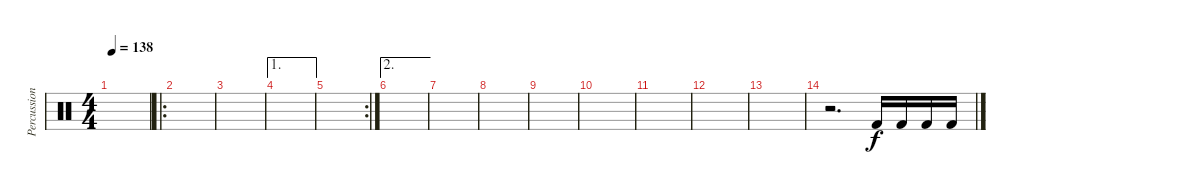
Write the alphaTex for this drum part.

\track ("Percussion" "Percussion") {instrument percussion}
\staff {score}
\articulation defaults
\ts (4 4)
\tempo 138
\clef neutral
\ks c
|
\ro
|
|
\ae 1
|
\rc 2
|
\ae 2
|
|
|
|
|
|
|
|
r.2{d} "Kick (hit) 2".16 "Kick (hit) 2".16 "Kick (hit) 2".16 "Kick (hit) 2".16
